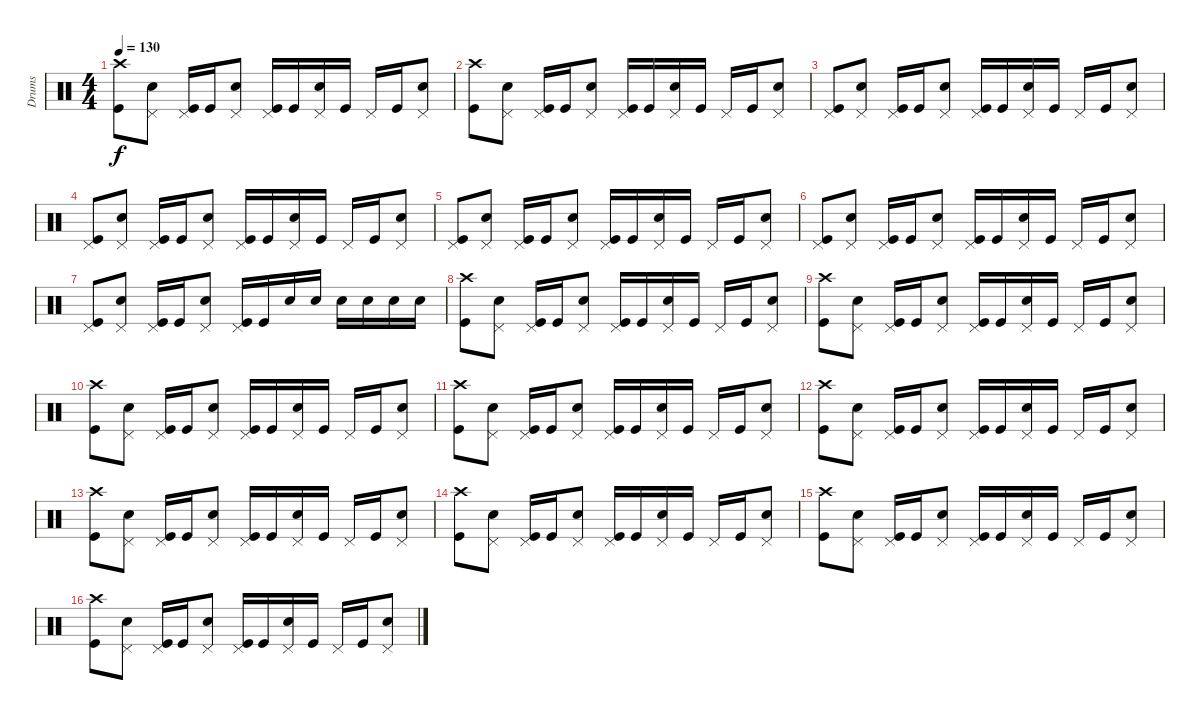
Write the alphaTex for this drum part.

\track ("Drums" "Drums") {instrument percussion}
\staff {score}
\articulation defaults
\ts (4 4)
\tempo 130
\clef neutral
\ks c
("Crash high (hit)" "Kick (hit)").8{dy f} ("Pedal Hi-Hat (hit)" "Electric Snare (hit)").8 ("Pedal Hi-Hat (hit)" "Kick (hit)").16 "Kick (hit)".16 ("Pedal Hi-Hat (hit)" "Electric Snare (hit)").8 ("Pedal Hi-Hat (hit)" "Kick (hit)").16 "Kick (hit)".16 ("Pedal Hi-Hat (hit)" "Electric Snare (hit)").16 "Kick (hit)".16 "Pedal Hi-Hat (hit)".16 "Kick (hit)".16 ("Pedal Hi-Hat (hit)" "Electric Snare (hit)").8 |
("Crash high (hit)" "Kick (hit)").8 ("Pedal Hi-Hat (hit)" "Electric Snare (hit)").8 ("Pedal Hi-Hat (hit)" "Kick (hit)").16 "Kick (hit)".16 ("Pedal Hi-Hat (hit)" "Electric Snare (hit)").8 ("Pedal Hi-Hat (hit)" "Kick (hit)").16 "Kick (hit)".16 ("Pedal Hi-Hat (hit)" "Electric Snare (hit)").16 "Kick (hit)".16 "Pedal Hi-Hat (hit)".16 "Kick (hit)".16 ("Pedal Hi-Hat (hit)" "Electric Snare (hit)").8 |
("Pedal Hi-Hat (hit)" "Kick (hit)").8 ("Pedal Hi-Hat (hit)" "Electric Snare (hit)").8 ("Pedal Hi-Hat (hit)" "Kick (hit)").16 "Kick (hit)".16 ("Pedal Hi-Hat (hit)" "Electric Snare (hit)").8 ("Pedal Hi-Hat (hit)" "Kick (hit)").16 "Kick (hit)".16 ("Pedal Hi-Hat (hit)" "Electric Snare (hit)").16 "Kick (hit)".16 "Pedal Hi-Hat (hit)".16 "Kick (hit)".16 ("Pedal Hi-Hat (hit)" "Electric Snare (hit)").8 |
("Pedal Hi-Hat (hit)" "Kick (hit)").8 ("Pedal Hi-Hat (hit)" "Electric Snare (hit)").8 ("Pedal Hi-Hat (hit)" "Kick (hit)").16 "Kick (hit)".16 ("Pedal Hi-Hat (hit)" "Electric Snare (hit)").8 ("Pedal Hi-Hat (hit)" "Kick (hit)").16 "Kick (hit)".16 ("Pedal Hi-Hat (hit)" "Electric Snare (hit)").16 "Kick (hit)".16 "Pedal Hi-Hat (hit)".16 "Kick (hit)".16 ("Pedal Hi-Hat (hit)" "Electric Snare (hit)").8 |
("Pedal Hi-Hat (hit)" "Kick (hit)").8 ("Pedal Hi-Hat (hit)" "Electric Snare (hit)").8 ("Pedal Hi-Hat (hit)" "Kick (hit)").16 "Kick (hit)".16 ("Pedal Hi-Hat (hit)" "Electric Snare (hit)").8 ("Pedal Hi-Hat (hit)" "Kick (hit)").16 "Kick (hit)".16 ("Pedal Hi-Hat (hit)" "Electric Snare (hit)").16 "Kick (hit)".16 "Pedal Hi-Hat (hit)".16 "Kick (hit)".16 ("Pedal Hi-Hat (hit)" "Electric Snare (hit)").8 |
("Pedal Hi-Hat (hit)" "Kick (hit)").8 ("Pedal Hi-Hat (hit)" "Electric Snare (hit)").8 ("Pedal Hi-Hat (hit)" "Kick (hit)").16 "Kick (hit)".16 ("Pedal Hi-Hat (hit)" "Electric Snare (hit)").8 ("Pedal Hi-Hat (hit)" "Kick (hit)").16 "Kick (hit)".16 ("Pedal Hi-Hat (hit)" "Electric Snare (hit)").16 "Kick (hit)".16 "Pedal Hi-Hat (hit)".16 "Kick (hit)".16 ("Pedal Hi-Hat (hit)" "Electric Snare (hit)").8 |
("Pedal Hi-Hat (hit)" "Kick (hit)").8 ("Pedal Hi-Hat (hit)" "Electric Snare (hit)").8 ("Pedal Hi-Hat (hit)" "Kick (hit)").16 "Kick (hit)".16 ("Pedal Hi-Hat (hit)" "Electric Snare (hit)").8 ("Pedal Hi-Hat (hit)" "Kick (hit)").16 "Kick (hit)".16 "Electric Snare (hit)".16 "Electric Snare (hit)".16 "Electric Snare (hit)".16 "Electric Snare (hit)".16 "Electric Snare (hit)".16 "Electric Snare (hit)".16 |
("Crash high (hit)" "Kick (hit)").8 ("Pedal Hi-Hat (hit)" "Electric Snare (hit)").8 ("Pedal Hi-Hat (hit)" "Kick (hit)").16 "Kick (hit)".16 ("Pedal Hi-Hat (hit)" "Electric Snare (hit)").8 ("Pedal Hi-Hat (hit)" "Kick (hit)").16 "Kick (hit)".16 ("Pedal Hi-Hat (hit)" "Electric Snare (hit)").16 "Kick (hit)".16 "Pedal Hi-Hat (hit)".16 "Kick (hit)".16 ("Pedal Hi-Hat (hit)" "Electric Snare (hit)").8 |
("Crash high (hit)" "Kick (hit)").8 ("Pedal Hi-Hat (hit)" "Electric Snare (hit)").8 ("Pedal Hi-Hat (hit)" "Kick (hit)").16 "Kick (hit)".16 ("Pedal Hi-Hat (hit)" "Electric Snare (hit)").8 ("Pedal Hi-Hat (hit)" "Kick (hit)").16 "Kick (hit)".16 ("Pedal Hi-Hat (hit)" "Electric Snare (hit)").16 "Kick (hit)".16 "Pedal Hi-Hat (hit)".16 "Kick (hit)".16 ("Pedal Hi-Hat (hit)" "Electric Snare (hit)").8 |
("Crash high (hit)" "Kick (hit)").8 ("Pedal Hi-Hat (hit)" "Electric Snare (hit)").8 ("Pedal Hi-Hat (hit)" "Kick (hit)").16 "Kick (hit)".16 ("Pedal Hi-Hat (hit)" "Electric Snare (hit)").8 ("Pedal Hi-Hat (hit)" "Kick (hit)").16 "Kick (hit)".16 ("Pedal Hi-Hat (hit)" "Electric Snare (hit)").16 "Kick (hit)".16 "Pedal Hi-Hat (hit)".16 "Kick (hit)".16 ("Pedal Hi-Hat (hit)" "Electric Snare (hit)").8 |
("Crash high (hit)" "Kick (hit)").8 ("Pedal Hi-Hat (hit)" "Electric Snare (hit)").8 ("Pedal Hi-Hat (hit)" "Kick (hit)").16 "Kick (hit)".16 ("Pedal Hi-Hat (hit)" "Electric Snare (hit)").8 ("Pedal Hi-Hat (hit)" "Kick (hit)").16 "Kick (hit)".16 ("Pedal Hi-Hat (hit)" "Electric Snare (hit)").16 "Kick (hit)".16 "Pedal Hi-Hat (hit)".16 "Kick (hit)".16 ("Pedal Hi-Hat (hit)" "Electric Snare (hit)").8 |
("Crash high (hit)" "Kick (hit)").8 ("Pedal Hi-Hat (hit)" "Electric Snare (hit)").8 ("Pedal Hi-Hat (hit)" "Kick (hit)").16 "Kick (hit)".16 ("Pedal Hi-Hat (hit)" "Electric Snare (hit)").8 ("Pedal Hi-Hat (hit)" "Kick (hit)").16 "Kick (hit)".16 ("Pedal Hi-Hat (hit)" "Electric Snare (hit)").16 "Kick (hit)".16 "Pedal Hi-Hat (hit)".16 "Kick (hit)".16 ("Pedal Hi-Hat (hit)" "Electric Snare (hit)").8 |
("Crash high (hit)" "Kick (hit)").8 ("Pedal Hi-Hat (hit)" "Electric Snare (hit)").8 ("Pedal Hi-Hat (hit)" "Kick (hit)").16 "Kick (hit)".16 ("Pedal Hi-Hat (hit)" "Electric Snare (hit)").8 ("Pedal Hi-Hat (hit)" "Kick (hit)").16 "Kick (hit)".16 ("Pedal Hi-Hat (hit)" "Electric Snare (hit)").16 "Kick (hit)".16 "Pedal Hi-Hat (hit)".16 "Kick (hit)".16 ("Pedal Hi-Hat (hit)" "Electric Snare (hit)").8 |
("Crash high (hit)" "Kick (hit)").8 ("Pedal Hi-Hat (hit)" "Electric Snare (hit)").8 ("Pedal Hi-Hat (hit)" "Kick (hit)").16 "Kick (hit)".16 ("Pedal Hi-Hat (hit)" "Electric Snare (hit)").8 ("Pedal Hi-Hat (hit)" "Kick (hit)").16 "Kick (hit)".16 ("Pedal Hi-Hat (hit)" "Electric Snare (hit)").16 "Kick (hit)".16 "Pedal Hi-Hat (hit)".16 "Kick (hit)".16 ("Pedal Hi-Hat (hit)" "Electric Snare (hit)").8 |
("Crash high (hit)" "Kick (hit)").8 ("Pedal Hi-Hat (hit)" "Electric Snare (hit)").8 ("Pedal Hi-Hat (hit)" "Kick (hit)").16 "Kick (hit)".16 ("Pedal Hi-Hat (hit)" "Electric Snare (hit)").8 ("Pedal Hi-Hat (hit)" "Kick (hit)").16 "Kick (hit)".16 ("Pedal Hi-Hat (hit)" "Electric Snare (hit)").16 "Kick (hit)".16 "Pedal Hi-Hat (hit)".16 "Kick (hit)".16 ("Pedal Hi-Hat (hit)" "Electric Snare (hit)").8 |
("Crash high (hit)" "Kick (hit)").8 ("Pedal Hi-Hat (hit)" "Electric Snare (hit)").8 ("Pedal Hi-Hat (hit)" "Kick (hit)").16 "Kick (hit)".16 ("Pedal Hi-Hat (hit)" "Electric Snare (hit)").8 ("Pedal Hi-Hat (hit)" "Kick (hit)").16 "Kick (hit)".16 ("Pedal Hi-Hat (hit)" "Electric Snare (hit)").16 "Kick (hit)".16 "Pedal Hi-Hat (hit)".16 "Kick (hit)".16 ("Pedal Hi-Hat (hit)" "Electric Snare (hit)").8
